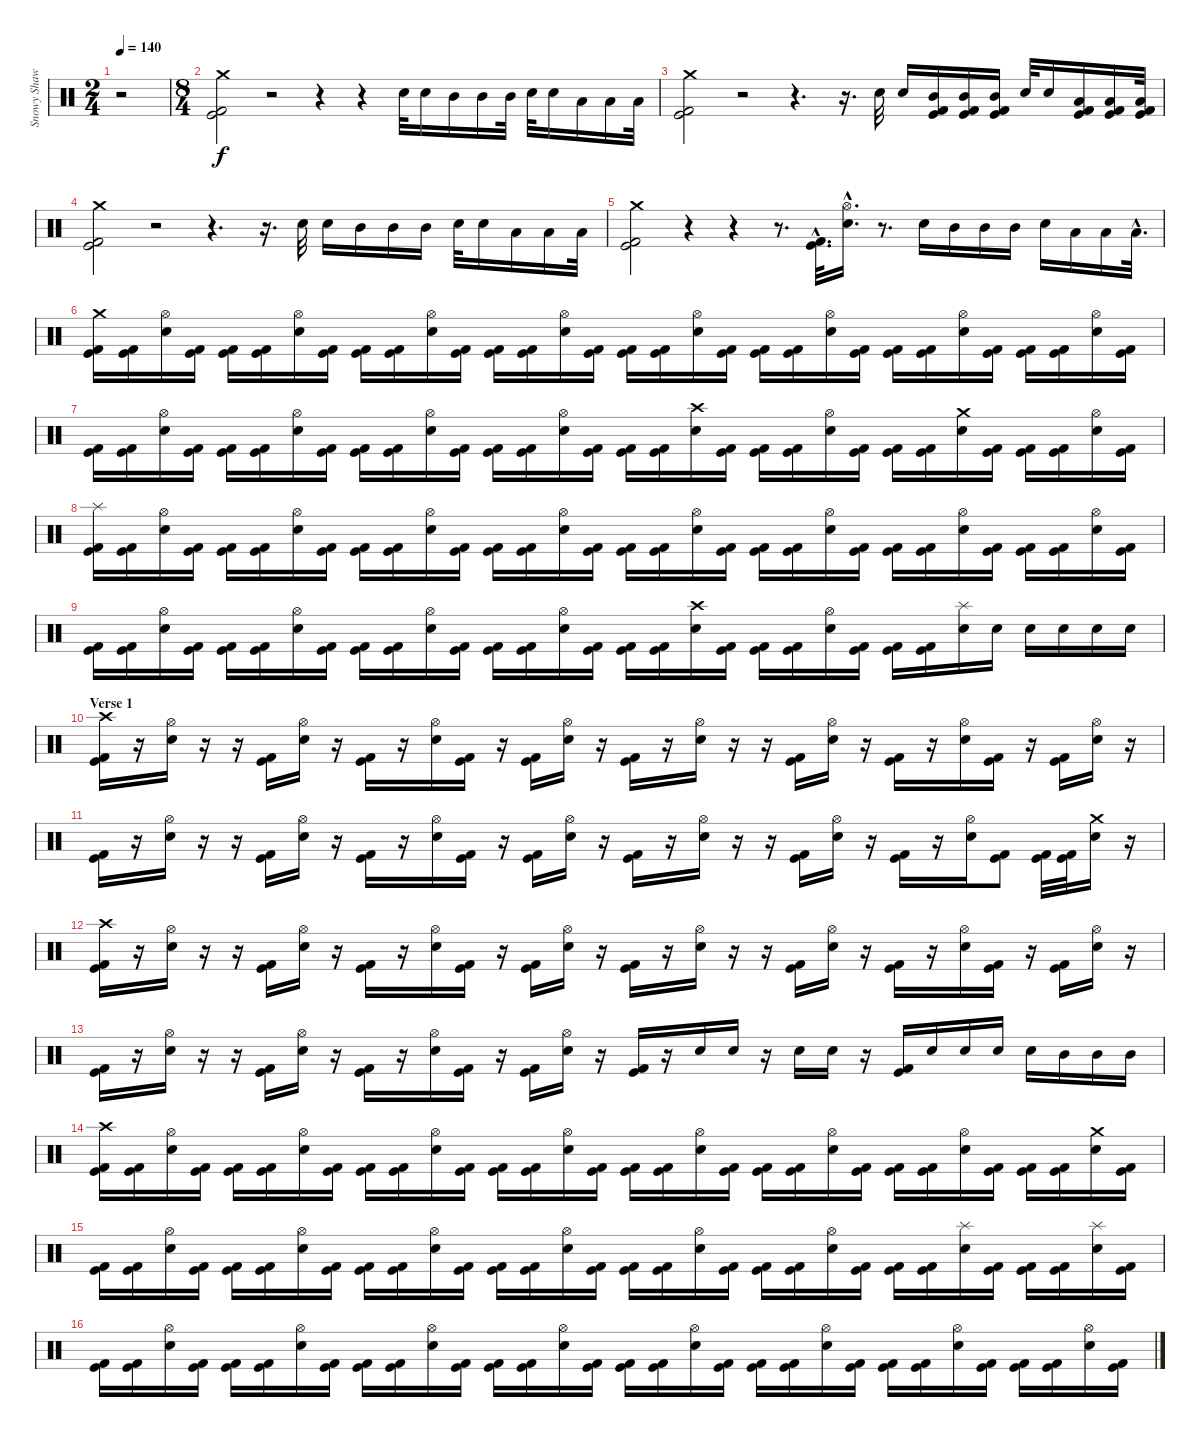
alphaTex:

\track ("Snowy Shaw" "Snowy Shaw") {instrument percussion}
\staff {score}
\articulation defaults
\ts (2 4)
\tempo 140
\clef neutral
\ks c
r.2{dy f} |
\ts (8 4)
("Crash medium (hit)" "Kick (hit) 2" "Kick (hit)").2 r.2 r.4 r.4 "Electric Snare (hit)".32 "Electric Snare (hit)".16 "Mid Tom (hit)".16 "Mid Tom (hit)".16 "Mid Tom (hit)".32 "Electric Snare (hit)".32 "Electric Snare (hit)".16 "Low Tom (hit)".16 "Low Tom (hit)".16 "Low Tom (hit)".32 |
("Crash medium (hit)" "Kick (hit) 2" "Kick (hit)").2 r.2 r.4{d} r.16{d} "Electric Snare (hit)".32 "Electric Snare (hit)".16 ("Mid Tom (hit)" "Kick (hit) 2" "Kick (hit)").16 ("Mid Tom (hit)" "Kick (hit) 2" "Kick (hit)").16 ("Mid Tom (hit)" "Kick (hit) 2" "Kick (hit)").16 "Electric Snare (hit)".32 "Electric Snare (hit)".16 ("Low Tom (hit)" "Kick (hit) 2" "Kick (hit)").16 ("Low Tom (hit)" "Kick (hit) 2" "Kick (hit)").16 ("Low Tom (hit)" "Kick (hit) 2" "Kick (hit)").32 |
("Crash medium (hit)" "Kick (hit) 2" "Kick (hit)").2 r.2 r.4{d} r.16{d} "Electric Snare (hit)".32 "Electric Snare (hit)".16 "Mid Tom (hit)".16 "Mid Tom (hit)".16 "Mid Tom (hit)".16 "Electric Snare (hit)".32 "Electric Snare (hit)".16 "Low Tom (hit)".16 "Low Tom (hit)".16 "Low Tom (hit)".32 |
("Crash medium (hit)" "Kick (hit) 2" "Kick (hit)").2 r.4 r.4 r.8{d} ("Kick (hit) 2"{hac} "Kick (hit)"{hac}).32{d} ("Hi-Hat (open)"{hac} "Electric Snare (hit)"{hac}).16{d} r.8{d} "Electric Snare (hit)".16 "Mid Tom (hit)".16 "Mid Tom (hit)".16 "Mid Tom (hit)".16 "Electric Snare (hit)".16 "Low Tom (hit)".16 "Low Tom (hit)".16 "Low Tom (hit)"{hac}.32{d} |
("Crash medium (hit)" "Kick (hit)" "Kick (hit) 2").16 ("Kick (hit)" "Kick (hit) 2").16 ("Hi-Hat (open)" "Electric Snare (hit)").16 ("Kick (hit)" "Kick (hit) 2").16 ("Kick (hit)" "Kick (hit) 2").16 ("Kick (hit)" "Kick (hit) 2").16 ("Hi-Hat (open)" "Electric Snare (hit)").16 ("Kick (hit)" "Kick (hit) 2").16 ("Kick (hit)" "Kick (hit) 2").16 ("Kick (hit)" "Kick (hit) 2").16 ("Hi-Hat (open)" "Electric Snare (hit)").16 ("Kick (hit)" "Kick (hit) 2").16 ("Kick (hit)" "Kick (hit) 2").16 ("Kick (hit)" "Kick (hit) 2").16 ("Hi-Hat (open)" "Electric Snare (hit)").16 ("Kick (hit)" "Kick (hit) 2").16 ("Kick (hit)" "Kick (hit) 2").16 ("Kick (hit)" "Kick (hit) 2").16 ("Hi-Hat (open)" "Electric Snare (hit)").16 ("Kick (hit)" "Kick (hit) 2").16 ("Kick (hit)" "Kick (hit) 2").16 ("Kick (hit)" "Kick (hit) 2").16 ("Hi-Hat (open)" "Electric Snare (hit)").16 ("Kick (hit)" "Kick (hit) 2").16 ("Kick (hit)" "Kick (hit) 2").16 ("Kick (hit)" "Kick (hit) 2").16 ("Hi-Hat (open)" "Electric Snare (hit)").16 ("Kick (hit)" "Kick (hit) 2").16 ("Kick (hit)" "Kick (hit) 2").16 ("Kick (hit)" "Kick (hit) 2").16 ("Hi-Hat (open)" "Electric Snare (hit)").16 ("Kick (hit)" "Kick (hit) 2").16 |
("Kick (hit)" "Kick (hit) 2").16 ("Kick (hit)" "Kick (hit) 2").16 ("Hi-Hat (open)" "Electric Snare (hit)").16 ("Kick (hit)" "Kick (hit) 2").16 ("Kick (hit)" "Kick (hit) 2").16 ("Kick (hit)" "Kick (hit) 2").16 ("Hi-Hat (open)" "Electric Snare (hit)").16 ("Kick (hit)" "Kick (hit) 2").16 ("Kick (hit)" "Kick (hit) 2").16 ("Kick (hit)" "Kick (hit) 2").16 ("Hi-Hat (open)" "Electric Snare (hit)").16 ("Kick (hit)" "Kick (hit) 2").16 ("Kick (hit)" "Kick (hit) 2").16 ("Kick (hit)" "Kick (hit) 2").16 ("Hi-Hat (open)" "Electric Snare (hit)").16 ("Kick (hit)" "Kick (hit) 2").16 ("Kick (hit)" "Kick (hit) 2").16 ("Kick (hit)" "Kick (hit) 2").16 ("Crash high (hit)" "Electric Snare (hit)").16 ("Kick (hit)" "Kick (hit) 2").16 ("Kick (hit)" "Kick (hit) 2").16 ("Kick (hit)" "Kick (hit) 2").16 ("Hi-Hat (open)" "Electric Snare (hit)").16 ("Kick (hit)" "Kick (hit) 2").16 ("Kick (hit)" "Kick (hit) 2").16 ("Kick (hit)" "Kick (hit) 2").16 ("Crash medium (hit)" "Electric Snare (hit)").16 ("Kick (hit)" "Kick (hit) 2").16 ("Kick (hit)" "Kick (hit) 2").16 ("Kick (hit)" "Kick (hit) 2").16 ("Hi-Hat (open)" "Electric Snare (hit)").16 ("Kick (hit)" "Kick (hit) 2").16 |
("Splash (hit)" "Kick (hit)" "Kick (hit) 2").16 ("Kick (hit)" "Kick (hit) 2").16 ("Hi-Hat (open)" "Electric Snare (hit)").16 ("Kick (hit)" "Kick (hit) 2").16 ("Kick (hit)" "Kick (hit) 2").16 ("Kick (hit)" "Kick (hit) 2").16 ("Hi-Hat (open)" "Electric Snare (hit)").16 ("Kick (hit)" "Kick (hit) 2").16 ("Kick (hit)" "Kick (hit) 2").16 ("Kick (hit)" "Kick (hit) 2").16 ("Hi-Hat (open)" "Electric Snare (hit)").16 ("Kick (hit)" "Kick (hit) 2").16 ("Kick (hit)" "Kick (hit) 2").16 ("Kick (hit)" "Kick (hit) 2").16 ("Hi-Hat (open)" "Electric Snare (hit)").16 ("Kick (hit)" "Kick (hit) 2").16 ("Kick (hit)" "Kick (hit) 2").16 ("Kick (hit)" "Kick (hit) 2").16 ("Hi-Hat (open)" "Electric Snare (hit)").16 ("Kick (hit)" "Kick (hit) 2").16 ("Kick (hit)" "Kick (hit) 2").16 ("Kick (hit)" "Kick (hit) 2").16 ("Hi-Hat (open)" "Electric Snare (hit)").16 ("Kick (hit)" "Kick (hit) 2").16 ("Kick (hit)" "Kick (hit) 2").16 ("Kick (hit)" "Kick (hit) 2").16 ("Hi-Hat (open)" "Electric Snare (hit)").16 ("Kick (hit)" "Kick (hit) 2").16 ("Kick (hit)" "Kick (hit) 2").16 ("Kick (hit)" "Kick (hit) 2").16 ("Hi-Hat (open)" "Electric Snare (hit)").16 ("Kick (hit)" "Kick (hit) 2").16 |
("Kick (hit)" "Kick (hit) 2").16 ("Kick (hit)" "Kick (hit) 2").16 ("Hi-Hat (open)" "Electric Snare (hit)").16 ("Kick (hit)" "Kick (hit) 2").16 ("Kick (hit)" "Kick (hit) 2").16 ("Kick (hit)" "Kick (hit) 2").16 ("Hi-Hat (open)" "Electric Snare (hit)").16 ("Kick (hit)" "Kick (hit) 2").16 ("Kick (hit)" "Kick (hit) 2").16 ("Kick (hit)" "Kick (hit) 2").16 ("Hi-Hat (open)" "Electric Snare (hit)").16 ("Kick (hit)" "Kick (hit) 2").16 ("Kick (hit)" "Kick (hit) 2").16 ("Kick (hit)" "Kick (hit) 2").16 ("Hi-Hat (open)" "Electric Snare (hit)").16 ("Kick (hit)" "Kick (hit) 2").16 ("Kick (hit)" "Kick (hit) 2").16 ("Kick (hit)" "Kick (hit) 2").16 ("Crash high (hit)" "Electric Snare (hit)").16 ("Kick (hit)" "Kick (hit) 2").16 ("Kick (hit)" "Kick (hit) 2").16 ("Kick (hit)" "Kick (hit) 2").16 ("Hi-Hat (open)" "Electric Snare (hit)").16 ("Kick (hit)" "Kick (hit) 2").16 ("Kick (hit)" "Kick (hit) 2").16 ("Kick (hit)" "Kick (hit) 2").16 ("Splash (hit)" "Electric Snare (hit)").16 "Electric Snare (hit)".16 "Electric Snare (hit)".16 "Electric Snare (hit)".16 "Electric Snare (hit)".16 "Electric Snare (hit)".16 |
\section ("" "Verse 1")
("Crash high (hit)" "Kick (hit)" "Kick (hit) 2").16 r.16 ("Hi-Hat (open)" "Electric Snare (hit)").16 r.16 r.16 ("Kick (hit)" "Kick (hit) 2").16 ("Hi-Hat (open)" "Electric Snare (hit)").16 r.16 ("Kick (hit)" "Kick (hit) 2").16 r.16 ("Hi-Hat (open)" "Electric Snare (hit)").16 ("Kick (hit)" "Kick (hit) 2").16 r.16 ("Kick (hit)" "Kick (hit) 2").16 ("Hi-Hat (open)" "Electric Snare (hit)").16 r.16 ("Kick (hit)" "Kick (hit) 2").16 r.16 ("Hi-Hat (open)" "Electric Snare (hit)").16 r.16 r.16 ("Kick (hit)" "Kick (hit) 2").16 ("Hi-Hat (open)" "Electric Snare (hit)").16 r.16 ("Kick (hit)" "Kick (hit) 2").16 r.16 ("Hi-Hat (open)" "Electric Snare (hit)").16 ("Kick (hit)" "Kick (hit) 2").16 r.16 ("Kick (hit)" "Kick (hit) 2").16 ("Hi-Hat (open)" "Electric Snare (hit)").16 r.16 |
("Kick (hit)" "Kick (hit) 2").16 r.16 ("Hi-Hat (open)" "Electric Snare (hit)").16 r.16 r.16 ("Kick (hit)" "Kick (hit) 2").16 ("Hi-Hat (open)" "Electric Snare (hit)").16 r.16 ("Kick (hit)" "Kick (hit) 2").16 r.16 ("Hi-Hat (open)" "Electric Snare (hit)").16 ("Kick (hit)" "Kick (hit) 2").16 r.16 ("Kick (hit)" "Kick (hit) 2").16 ("Hi-Hat (open)" "Electric Snare (hit)").16 r.16 ("Kick (hit)" "Kick (hit) 2").16 r.16 ("Hi-Hat (open)" "Electric Snare (hit)").16 r.16 r.16 ("Kick (hit)" "Kick (hit) 2").16 ("Hi-Hat (open)" "Electric Snare (hit)").16 r.16 ("Kick (hit)" "Kick (hit) 2").16 r.16 ("Hi-Hat (open)" "Electric Snare (hit)").16 ("Kick (hit)" "Kick (hit) 2").8 ("Kick (hit) 2" "Kick (hit)").32 ("Kick (hit)" "Kick (hit) 2").32 ("Crash medium (hit)" "Electric Snare (hit)").16 r.16 |
("Crash high (hit)" "Kick (hit)" "Kick (hit) 2").16 r.16 ("Hi-Hat (open)" "Electric Snare (hit)").16 r.16 r.16 ("Kick (hit)" "Kick (hit) 2").16 ("Hi-Hat (open)" "Electric Snare (hit)").16 r.16 ("Kick (hit)" "Kick (hit) 2").16 r.16 ("Hi-Hat (open)" "Electric Snare (hit)").16 ("Kick (hit)" "Kick (hit) 2").16 r.16 ("Kick (hit)" "Kick (hit) 2").16 ("Hi-Hat (open)" "Electric Snare (hit)").16 r.16 ("Kick (hit)" "Kick (hit) 2").16 r.16 ("Hi-Hat (open)" "Electric Snare (hit)").16 r.16 r.16 ("Kick (hit)" "Kick (hit) 2").16 ("Hi-Hat (open)" "Electric Snare (hit)").16 r.16 ("Kick (hit)" "Kick (hit) 2").16 r.16 ("Hi-Hat (open)" "Electric Snare (hit)").16 ("Kick (hit)" "Kick (hit) 2").16 r.16 ("Kick (hit)" "Kick (hit) 2").16 ("Hi-Hat (open)" "Electric Snare (hit)").16 r.16 |
("Kick (hit)" "Kick (hit) 2").16 r.16 ("Hi-Hat (open)" "Electric Snare (hit)").16 r.16 r.16 ("Kick (hit)" "Kick (hit) 2").16 ("Hi-Hat (open)" "Electric Snare (hit)").16 r.16 ("Kick (hit)" "Kick (hit) 2").16 r.16 ("Hi-Hat (open)" "Electric Snare (hit)").16 ("Kick (hit)" "Kick (hit) 2").16 r.16 ("Kick (hit)" "Kick (hit) 2").16 ("Hi-Hat (open)" "Electric Snare (hit)").16 r.16 ("Kick (hit)" "Kick (hit) 2").16 r.16 "Electric Snare (hit)".16 "Electric Snare (hit)".16 r.16 "Electric Snare (hit)".16 "Electric Snare (hit)".16 r.16 ("Kick (hit)" "Kick (hit) 2").16 "Electric Snare (hit)".16 "Electric Snare (hit)".16 "Electric Snare (hit)".16 "Electric Snare (hit)".16 "Mid Tom (hit)".16 "Mid Tom (hit)".16 "Mid Tom (hit)".16 |
("Crash high (hit)" "Kick (hit)" "Kick (hit) 2").16 ("Kick (hit)" "Kick (hit) 2").16 ("Hi-Hat (open)" "Electric Snare (hit)").16 ("Kick (hit)" "Kick (hit) 2").16 ("Kick (hit)" "Kick (hit) 2").16 ("Kick (hit)" "Kick (hit) 2").16 ("Hi-Hat (open)" "Electric Snare (hit)").16 ("Kick (hit)" "Kick (hit) 2").16 ("Kick (hit)" "Kick (hit) 2").16 ("Kick (hit)" "Kick (hit) 2").16 ("Hi-Hat (open)" "Electric Snare (hit)").16 ("Kick (hit)" "Kick (hit) 2").16 ("Kick (hit)" "Kick (hit) 2").16 ("Kick (hit)" "Kick (hit) 2").16 ("Hi-Hat (open)" "Electric Snare (hit)").16 ("Kick (hit)" "Kick (hit) 2").16 ("Kick (hit)" "Kick (hit) 2").16 ("Kick (hit)" "Kick (hit) 2").16 ("Hi-Hat (open)" "Electric Snare (hit)").16 ("Kick (hit)" "Kick (hit) 2").16 ("Kick (hit)" "Kick (hit) 2").16 ("Kick (hit)" "Kick (hit) 2").16 ("Hi-Hat (open)" "Electric Snare (hit)").16 ("Kick (hit)" "Kick (hit) 2").16 ("Kick (hit)" "Kick (hit) 2").16 ("Kick (hit)" "Kick (hit) 2").16 ("Hi-Hat (open)" "Electric Snare (hit)").16 ("Kick (hit)" "Kick (hit) 2").16 ("Kick (hit)" "Kick (hit) 2").16 ("Kick (hit)" "Kick (hit) 2").16 ("Crash medium (hit)" "Electric Snare (hit)").16 ("Kick (hit)" "Kick (hit) 2").16 |
("Kick (hit)" "Kick (hit) 2").16 ("Kick (hit)" "Kick (hit) 2").16 ("Hi-Hat (open)" "Electric Snare (hit)").16 ("Kick (hit)" "Kick (hit) 2").16 ("Kick (hit)" "Kick (hit) 2").16 ("Kick (hit)" "Kick (hit) 2").16 ("Hi-Hat (open)" "Electric Snare (hit)").16 ("Kick (hit)" "Kick (hit) 2").16 ("Kick (hit)" "Kick (hit) 2").16 ("Kick (hit)" "Kick (hit) 2").16 ("Hi-Hat (open)" "Electric Snare (hit)").16 ("Kick (hit)" "Kick (hit) 2").16 ("Kick (hit)" "Kick (hit) 2").16 ("Kick (hit)" "Kick (hit) 2").16 ("Hi-Hat (open)" "Electric Snare (hit)").16 ("Kick (hit)" "Kick (hit) 2").16 ("Kick (hit)" "Kick (hit) 2").16 ("Kick (hit)" "Kick (hit) 2").16 ("Hi-Hat (open)" "Electric Snare (hit)").16 ("Kick (hit)" "Kick (hit) 2").16 ("Kick (hit)" "Kick (hit) 2").16 ("Kick (hit)" "Kick (hit) 2").16 ("Hi-Hat (open)" "Electric Snare (hit)").16 ("Kick (hit)" "Kick (hit) 2").16 ("Kick (hit)" "Kick (hit) 2").16 ("Kick (hit)" "Kick (hit) 2").16 ("Splash (hit)" "Electric Snare (hit)").16 ("Kick (hit)" "Kick (hit) 2").16 ("Kick (hit)" "Kick (hit) 2").16 ("Kick (hit)" "Kick (hit) 2").16 ("Splash (hit)" "Electric Snare (hit)").16 ("Kick (hit)" "Kick (hit) 2").16 |
("Kick (hit)" "Kick (hit) 2").16 ("Kick (hit)" "Kick (hit) 2").16 ("Hi-Hat (open)" "Electric Snare (hit)").16 ("Kick (hit)" "Kick (hit) 2").16 ("Kick (hit)" "Kick (hit) 2").16 ("Kick (hit)" "Kick (hit) 2").16 ("Hi-Hat (open)" "Electric Snare (hit)").16 ("Kick (hit)" "Kick (hit) 2").16 ("Kick (hit)" "Kick (hit) 2").16 ("Kick (hit)" "Kick (hit) 2").16 ("Hi-Hat (open)" "Electric Snare (hit)").16 ("Kick (hit)" "Kick (hit) 2").16 ("Kick (hit)" "Kick (hit) 2").16 ("Kick (hit)" "Kick (hit) 2").16 ("Hi-Hat (open)" "Electric Snare (hit)").16 ("Kick (hit)" "Kick (hit) 2").16 ("Kick (hit)" "Kick (hit) 2").16 ("Kick (hit)" "Kick (hit) 2").16 ("Hi-Hat (open)" "Electric Snare (hit)").16 ("Kick (hit)" "Kick (hit) 2").16 ("Kick (hit)" "Kick (hit) 2").16 ("Kick (hit)" "Kick (hit) 2").16 ("Hi-Hat (open)" "Electric Snare (hit)").16 ("Kick (hit)" "Kick (hit) 2").16 ("Kick (hit)" "Kick (hit) 2").16 ("Kick (hit)" "Kick (hit) 2").16 ("Hi-Hat (open)" "Electric Snare (hit)").16 ("Kick (hit)" "Kick (hit) 2").16 ("Kick (hit)" "Kick (hit) 2").16 ("Kick (hit)" "Kick (hit) 2").16 ("Hi-Hat (open)" "Electric Snare (hit)").16 ("Kick (hit)" "Kick (hit) 2").16
